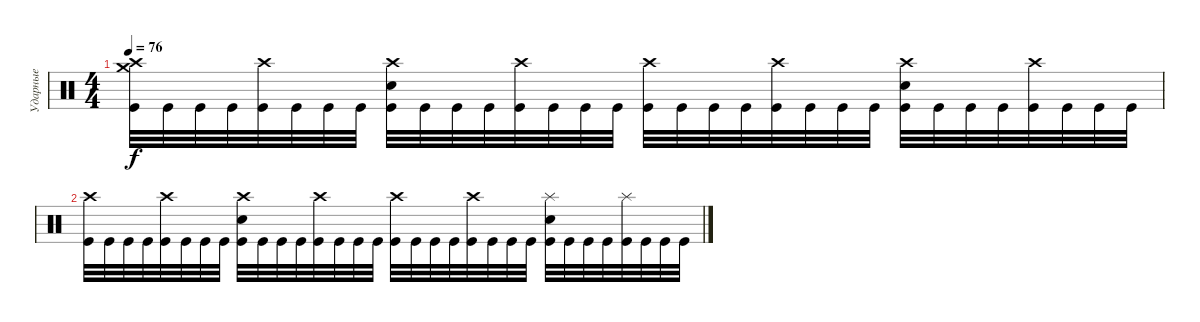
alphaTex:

\track ("Ударные" "Ударные") {instrument percussion}
\staff {score}
\articulation defaults
\ts (4 4)
\tempo 76
\clef neutral
\ks c
("Crash medium (hit)" "Crash high (hit)" "Kick (hit)").32{dy f} "Kick (hit)".32 "Kick (hit)".32 "Kick (hit)".32 ("Crash high (hit)" "Kick (hit)").32 "Kick (hit)".32 "Kick (hit)".32 "Kick (hit)".32 ("Crash high (hit)" "Snare (hit) 2" "Kick (hit)").32 "Kick (hit)".32 "Kick (hit)".32 "Kick (hit)".32 ("Crash high (hit)" "Kick (hit)").32 "Kick (hit)".32 "Kick (hit)".32 "Kick (hit)".32 ("Crash high (hit)" "Kick (hit)").32 "Kick (hit)".32 "Kick (hit)".32 "Kick (hit)".32 ("Crash high (hit)" "Kick (hit)").32 "Kick (hit)".32 "Kick (hit)".32 "Kick (hit)".32 ("Crash high (hit)" "Snare (hit) 2" "Kick (hit)").32 "Kick (hit)".32 "Kick (hit)".32 "Kick (hit)".32 ("Crash high (hit)" "Kick (hit)").32 "Kick (hit)".32 "Kick (hit)".32 "Kick (hit)".32 |
("Crash high (hit)" "Kick (hit)").32 "Kick (hit)".32 "Kick (hit)".32 "Kick (hit)".32 ("Crash high (hit)" "Kick (hit)").32 "Kick (hit)".32 "Kick (hit)".32 "Kick (hit)".32 ("Crash high (hit)" "Snare (hit) 2" "Kick (hit)").32 "Kick (hit)".32 "Kick (hit)".32 "Kick (hit)".32 ("Crash high (hit)" "Kick (hit)").32 "Kick (hit)".32 "Kick (hit)".32 "Kick (hit)".32 ("Crash high (hit)" "Kick (hit)").32 "Kick (hit)".32 "Kick (hit)".32 "Kick (hit)".32 ("Crash high (hit)" "Kick (hit)").32 "Kick (hit)".32 "Kick (hit)".32 "Kick (hit)".32 ("Splash (hit)" "Snare (hit) 2" "Kick (hit)").32 "Kick (hit)".32 "Kick (hit)".32 "Kick (hit)".32 ("Splash (hit)" "Kick (hit)").32 "Kick (hit)".32 "Kick (hit)".32 "Kick (hit)".32
